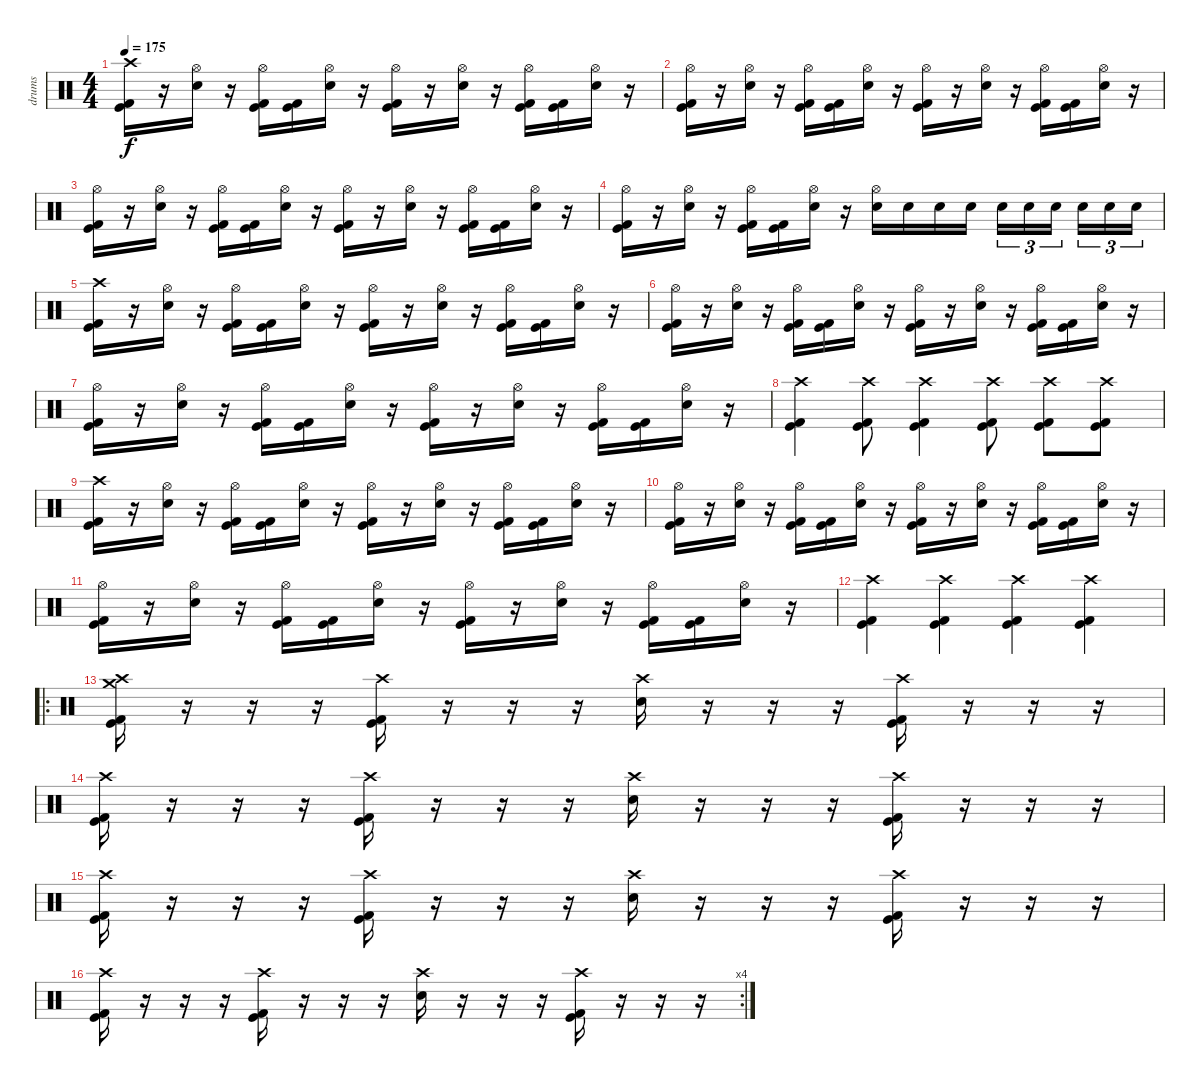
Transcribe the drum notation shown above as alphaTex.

\track ("drums" "drums") {instrument percussion}
\staff {score}
\articulation defaults
\ts (4 4)
\tempo 175
\clef neutral
\ks c
("Crash high (hit)" "Kick (hit)" "Kick (hit) 2").16{dy f} r.16 ("Hi-Hat (open)" "Electric Snare (hit)").16 r.16 ("Hi-Hat (open)" "Kick (hit)" "Kick (hit) 2").16 ("Kick (hit)" "Kick (hit) 2").16 ("Hi-Hat (open)" "Electric Snare (hit)").16 r.16 ("Hi-Hat (open)" "Kick (hit)" "Kick (hit) 2").16 r.16 ("Hi-Hat (open)" "Electric Snare (hit)").16 r.16 ("Hi-Hat (open)" "Kick (hit)" "Kick (hit) 2").16 ("Kick (hit)" "Kick (hit) 2").16 ("Hi-Hat (open)" "Electric Snare (hit)").16 r.16 |
("Hi-Hat (open)" "Kick (hit)" "Kick (hit) 2").16 r.16 ("Hi-Hat (open)" "Electric Snare (hit)").16 r.16 ("Hi-Hat (open)" "Kick (hit)" "Kick (hit) 2").16 ("Kick (hit)" "Kick (hit) 2").16 ("Hi-Hat (open)" "Electric Snare (hit)").16 r.16 ("Hi-Hat (open)" "Kick (hit)" "Kick (hit) 2").16 r.16 ("Hi-Hat (open)" "Electric Snare (hit)").16 r.16 ("Hi-Hat (open)" "Kick (hit)" "Kick (hit) 2").16 ("Kick (hit)" "Kick (hit) 2").16 ("Hi-Hat (open)" "Electric Snare (hit)").16 r.16 |
("Hi-Hat (open)" "Kick (hit)" "Kick (hit) 2").16 r.16 ("Hi-Hat (open)" "Electric Snare (hit)").16 r.16 ("Hi-Hat (open)" "Kick (hit)" "Kick (hit) 2").16 ("Kick (hit)" "Kick (hit) 2").16 ("Hi-Hat (open)" "Electric Snare (hit)").16 r.16 ("Hi-Hat (open)" "Kick (hit)" "Kick (hit) 2").16 r.16 ("Hi-Hat (open)" "Electric Snare (hit)").16 r.16 ("Hi-Hat (open)" "Kick (hit)" "Kick (hit) 2").16 ("Kick (hit)" "Kick (hit) 2").16 ("Hi-Hat (open)" "Electric Snare (hit)").16 r.16 |
("Hi-Hat (open)" "Kick (hit)" "Kick (hit) 2").16 r.16 ("Hi-Hat (open)" "Electric Snare (hit)").16 r.16 ("Hi-Hat (open)" "Kick (hit)" "Kick (hit) 2").16 ("Kick (hit)" "Kick (hit) 2").16 ("Hi-Hat (open)" "Electric Snare (hit)").16 r.16 ("Hi-Hat (open)" "Electric Snare (hit)").16 "Electric Snare (hit)".16 "Electric Snare (hit)".16 "Electric Snare (hit)".16 "Electric Snare (hit)".16{tu (3 2)} "Electric Snare (hit)".16{tu (3 2)} "Electric Snare (hit)".16{tu (3 2) beam splitsecondary} "Electric Snare (hit)".16{tu (3 2)} "Electric Snare (hit)".16{tu (3 2)} "Electric Snare (hit)".16{tu (3 2)} |
("Crash high (hit)" "Kick (hit)" "Kick (hit) 2").16 r.16 ("Hi-Hat (open)" "Electric Snare (hit)").16 r.16 ("Hi-Hat (open)" "Kick (hit)" "Kick (hit) 2").16 ("Kick (hit)" "Kick (hit) 2").16 ("Hi-Hat (open)" "Electric Snare (hit)").16 r.16 ("Hi-Hat (open)" "Kick (hit)" "Kick (hit) 2").16 r.16 ("Hi-Hat (open)" "Electric Snare (hit)").16 r.16 ("Hi-Hat (open)" "Kick (hit)" "Kick (hit) 2").16 ("Kick (hit)" "Kick (hit) 2").16 ("Hi-Hat (open)" "Electric Snare (hit)").16 r.16 |
("Hi-Hat (open)" "Kick (hit)" "Kick (hit) 2").16 r.16 ("Hi-Hat (open)" "Electric Snare (hit)").16 r.16 ("Hi-Hat (open)" "Kick (hit)" "Kick (hit) 2").16 ("Kick (hit)" "Kick (hit) 2").16 ("Hi-Hat (open)" "Electric Snare (hit)").16 r.16 ("Hi-Hat (open)" "Kick (hit)" "Kick (hit) 2").16 r.16 ("Hi-Hat (open)" "Electric Snare (hit)").16 r.16 ("Hi-Hat (open)" "Kick (hit)" "Kick (hit) 2").16 ("Kick (hit)" "Kick (hit) 2").16 ("Hi-Hat (open)" "Electric Snare (hit)").16 r.16 |
("Hi-Hat (open)" "Kick (hit)" "Kick (hit) 2").16 r.16 ("Hi-Hat (open)" "Electric Snare (hit)").16 r.16 ("Hi-Hat (open)" "Kick (hit)" "Kick (hit) 2").16 ("Kick (hit)" "Kick (hit) 2").16 ("Hi-Hat (open)" "Electric Snare (hit)").16 r.16 ("Hi-Hat (open)" "Kick (hit)" "Kick (hit) 2").16 r.16 ("Hi-Hat (open)" "Electric Snare (hit)").16 r.16 ("Hi-Hat (open)" "Kick (hit)" "Kick (hit) 2").16 ("Kick (hit)" "Kick (hit) 2").16 ("Hi-Hat (open)" "Electric Snare (hit)").16 r.16 |
("Crash high (hit)" "Kick (hit)" "Kick (hit) 2").4 ("Crash high (hit)" "Kick (hit)" "Kick (hit) 2").8 ("Crash high (hit)" "Kick (hit)" "Kick (hit) 2").4 ("Crash high (hit)" "Kick (hit)" "Kick (hit) 2").8 ("Crash high (hit)" "Kick (hit)" "Kick (hit) 2").8 ("Crash high (hit)" "Kick (hit)" "Kick (hit) 2").8 |
("Crash high (hit)" "Kick (hit)" "Kick (hit) 2").16 r.16 ("Hi-Hat (open)" "Electric Snare (hit)").16 r.16 ("Hi-Hat (open)" "Kick (hit)" "Kick (hit) 2").16 ("Kick (hit)" "Kick (hit) 2").16 ("Hi-Hat (open)" "Electric Snare (hit)").16 r.16 ("Hi-Hat (open)" "Kick (hit)" "Kick (hit) 2").16 r.16 ("Hi-Hat (open)" "Electric Snare (hit)").16 r.16 ("Hi-Hat (open)" "Kick (hit)" "Kick (hit) 2").16 ("Kick (hit)" "Kick (hit) 2").16 ("Hi-Hat (open)" "Electric Snare (hit)").16 r.16 |
("Hi-Hat (open)" "Kick (hit)" "Kick (hit) 2").16 r.16 ("Hi-Hat (open)" "Electric Snare (hit)").16 r.16 ("Hi-Hat (open)" "Kick (hit)" "Kick (hit) 2").16 ("Kick (hit)" "Kick (hit) 2").16 ("Hi-Hat (open)" "Electric Snare (hit)").16 r.16 ("Hi-Hat (open)" "Kick (hit)" "Kick (hit) 2").16 r.16 ("Hi-Hat (open)" "Electric Snare (hit)").16 r.16 ("Hi-Hat (open)" "Kick (hit)" "Kick (hit) 2").16 ("Kick (hit)" "Kick (hit) 2").16 ("Hi-Hat (open)" "Electric Snare (hit)").16 r.16 |
("Hi-Hat (open)" "Kick (hit)" "Kick (hit) 2").16 r.16 ("Hi-Hat (open)" "Electric Snare (hit)").16 r.16 ("Hi-Hat (open)" "Kick (hit)" "Kick (hit) 2").16 ("Kick (hit)" "Kick (hit) 2").16 ("Hi-Hat (open)" "Electric Snare (hit)").16 r.16 ("Hi-Hat (open)" "Kick (hit)" "Kick (hit) 2").16 r.16 ("Hi-Hat (open)" "Electric Snare (hit)").16 r.16 ("Hi-Hat (open)" "Kick (hit)" "Kick (hit) 2").16 ("Kick (hit)" "Kick (hit) 2").16 ("Hi-Hat (open)" "Electric Snare (hit)").16 r.16 |
("Crash high (hit)" "Kick (hit)" "Kick (hit) 2").4 ("Crash high (hit)" "Kick (hit)" "Kick (hit) 2").4 ("Crash high (hit)" "Kick (hit)" "Kick (hit) 2").4 ("Crash high (hit)" "Kick (hit)" "Kick (hit) 2").4 |
\ro
("Crash medium (hit)" "Crash high (hit)" "Kick (hit)" "Kick (hit) 2").16 r.16 r.16 r.16 ("Crash high (hit)" "Kick (hit)" "Kick (hit) 2").16 r.16 r.16 r.16 ("Crash high (hit)" "Electric Snare (hit)").16 r.16 r.16 r.16 ("Crash high (hit)" "Kick (hit)" "Kick (hit) 2").16 r.16 r.16 r.16 |
("Crash high (hit)" "Kick (hit)" "Kick (hit) 2").16 r.16 r.16 r.16 ("Crash high (hit)" "Kick (hit)" "Kick (hit) 2").16 r.16 r.16 r.16 ("Crash high (hit)" "Electric Snare (hit)").16 r.16 r.16 r.16 ("Crash high (hit)" "Kick (hit)" "Kick (hit) 2").16 r.16 r.16 r.16 |
("Crash high (hit)" "Kick (hit)" "Kick (hit) 2").16 r.16 r.16 r.16 ("Crash high (hit)" "Kick (hit)" "Kick (hit) 2").16 r.16 r.16 r.16 ("Crash high (hit)" "Electric Snare (hit)").16 r.16 r.16 r.16 ("Crash high (hit)" "Kick (hit)" "Kick (hit) 2").16 r.16 r.16 r.16 |
\rc 4
("Crash high (hit)" "Kick (hit)" "Kick (hit) 2").16 r.16 r.16 r.16 ("Crash high (hit)" "Kick (hit)" "Kick (hit) 2").16 r.16 r.16 r.16 ("Crash high (hit)" "Electric Snare (hit)").16 r.16 r.16 r.16 ("Crash high (hit)" "Kick (hit)" "Kick (hit) 2").16 r.16 r.16 r.16
